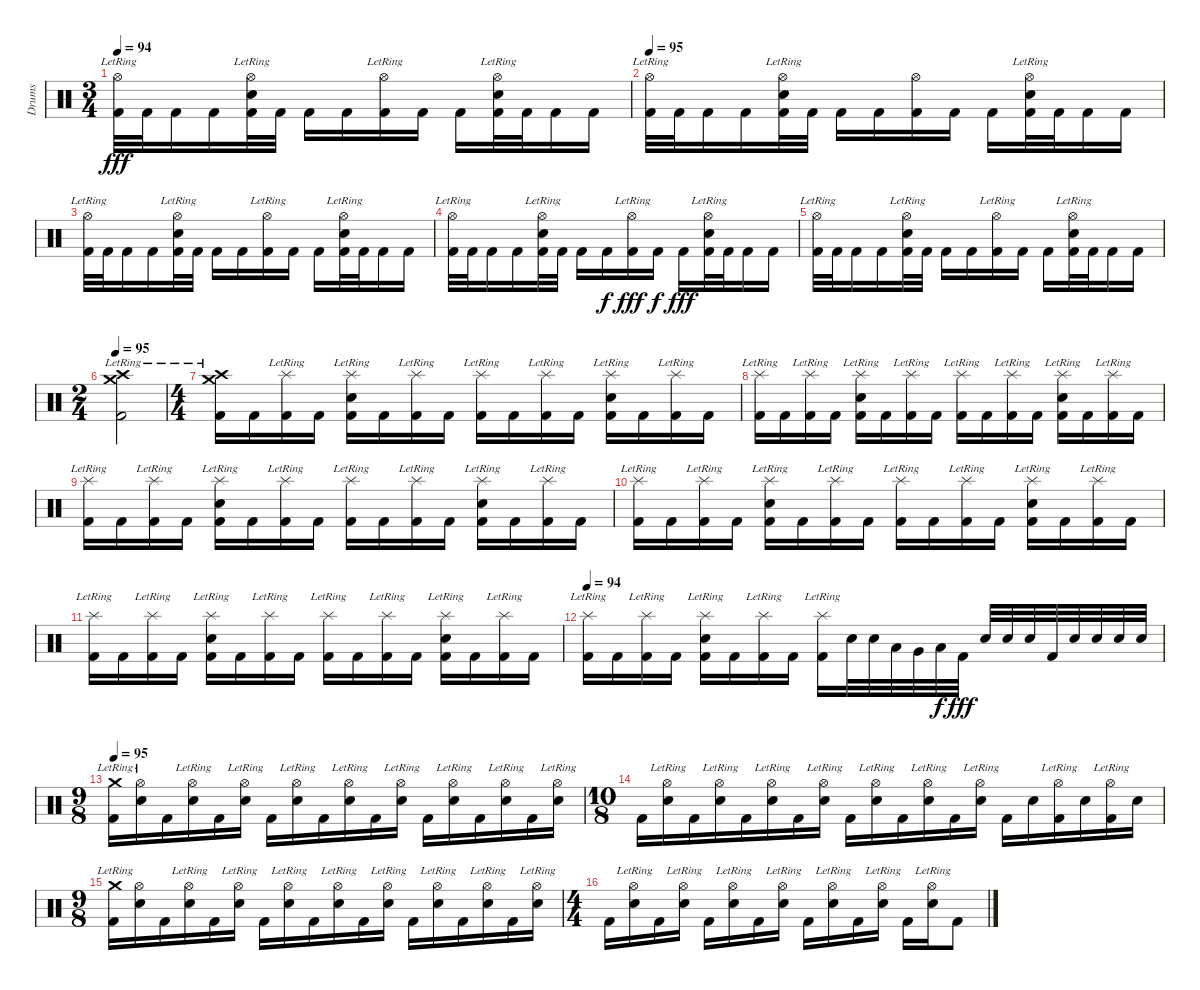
\track ("Drums" "Drums") {instrument percussion}
\staff {score}
\articulation defaults
\ts (3 4)
\tempo 94
\clef neutral
\ks c
("Hi-Hat (open)"{lr} "Kick (hit) 2").32{dy fff} "Kick (hit) 2".32 "Kick (hit) 2".16 "Kick (hit) 2".16 ("Hi-Hat (open)"{lr} "Electric Snare (hit)" "Kick (hit) 2").32 "Kick (hit) 2".32 "Kick (hit) 2".16 "Kick (hit) 2".16 ("Hi-Hat (open)"{lr} "Kick (hit) 2").16 "Kick (hit) 2".16 "Kick (hit) 2".16 ("Hi-Hat (open)"{lr} "Electric Snare (hit)" "Kick (hit) 2").32 "Kick (hit) 2".32 "Kick (hit) 2".16 "Kick (hit) 2".16 |
\tempo 95
("Hi-Hat (open)"{lr} "Kick (hit) 2").32 "Kick (hit) 2".32 "Kick (hit) 2".16 "Kick (hit) 2".16 ("Hi-Hat (open)"{lr} "Electric Snare (hit)" "Kick (hit) 2").32 "Kick (hit) 2".32 "Kick (hit) 2".16 "Kick (hit) 2".16 ("Hi-Hat (open)" "Kick (hit) 2").16 "Kick (hit) 2".16 "Kick (hit) 2".16 ("Hi-Hat (open)"{lr} "Electric Snare (hit)" "Kick (hit) 2").32 "Kick (hit) 2".32 "Kick (hit) 2".16 "Kick (hit) 2".16 |
("Hi-Hat (open)"{lr} "Kick (hit) 2").32 "Kick (hit) 2".32 "Kick (hit) 2".16 "Kick (hit) 2".16 ("Hi-Hat (open)"{lr} "Electric Snare (hit)" "Kick (hit) 2").32 "Kick (hit) 2".32 "Kick (hit) 2".16 "Kick (hit) 2".16 ("Hi-Hat (open)"{lr} "Kick (hit) 2").16 "Kick (hit) 2".16 "Kick (hit) 2".16 ("Hi-Hat (open)"{lr} "Electric Snare (hit)" "Kick (hit) 2").32 "Kick (hit) 2".32 "Kick (hit) 2".16 "Kick (hit) 2".16 |
("Hi-Hat (open)"{lr} "Kick (hit) 2").32 "Kick (hit) 2".32 "Kick (hit) 2".16 "Kick (hit) 2".16 ("Hi-Hat (open)"{lr} "Electric Snare (hit)" "Kick (hit) 2").32 "Kick (hit) 2".32 "Kick (hit) 2".16 "Kick (hit) 2".16{dy f} ("Hi-Hat (open)"{lr} "Kick (hit) 2").16{dy fff} "Kick (hit) 2".16{dy f} "Kick (hit) 2".16{dy fff} ("Hi-Hat (open)"{lr} "Electric Snare (hit)" "Kick (hit) 2").32 "Kick (hit) 2".32 "Kick (hit) 2".16 "Kick (hit) 2".16 |
("Hi-Hat (open)"{lr} "Kick (hit) 2").32 "Kick (hit) 2".32 "Kick (hit) 2".16 "Kick (hit) 2".16 ("Hi-Hat (open)"{lr} "Electric Snare (hit)" "Kick (hit) 2").32 "Kick (hit) 2".32 "Kick (hit) 2".16 "Kick (hit) 2".16 ("Hi-Hat (open)"{lr} "Kick (hit) 2").16 "Kick (hit) 2".16 "Kick (hit) 2".16 ("Hi-Hat (open)"{lr} "Electric Snare (hit)" "Kick (hit) 2").32 "Kick (hit) 2".32 "Kick (hit) 2".16 "Kick (hit) 2".16 |
\ts (2 4)
\tempo 95
("Crash high (hit)"{lr} "Crash medium (hit)"{lr} "Kick (hit) 2").2 |
\ts (4 4)
("Crash high (hit)"{lr} "Crash medium (hit)"{lr} "Kick (hit) 2").16 "Kick (hit) 2".16 ("Splash (hit)"{lr} "Kick (hit) 2").16 "Kick (hit) 2".16 ("Splash (hit)"{lr} "Electric Snare (hit)" "Kick (hit) 2").16 "Kick (hit) 2".16 ("Splash (hit)"{lr} "Kick (hit) 2").16 "Kick (hit) 2".16 ("Splash (hit)"{lr} "Kick (hit) 2").16 "Kick (hit) 2".16 ("Splash (hit)"{lr} "Kick (hit) 2").16 "Kick (hit) 2".16 ("Splash (hit)"{lr} "Electric Snare (hit)" "Kick (hit) 2").16 "Kick (hit) 2".16 ("Splash (hit)"{lr} "Kick (hit) 2").16 "Kick (hit) 2".16 |
("Splash (hit)"{lr} "Kick (hit) 2").16 "Kick (hit) 2".16 ("Splash (hit)"{lr} "Kick (hit) 2").16 "Kick (hit) 2".16 ("Splash (hit)"{lr} "Electric Snare (hit)" "Kick (hit) 2").16 "Kick (hit) 2".16 ("Splash (hit)"{lr} "Kick (hit) 2").16 "Kick (hit) 2".16 ("Splash (hit)"{lr} "Kick (hit) 2").16 "Kick (hit) 2".16 ("Splash (hit)"{lr} "Kick (hit) 2").16 "Kick (hit) 2".16 ("Splash (hit)"{lr} "Electric Snare (hit)" "Kick (hit) 2").16 "Kick (hit) 2".16 ("Splash (hit)"{lr} "Kick (hit) 2").16 "Kick (hit) 2".16 |
("Splash (hit)"{lr} "Kick (hit) 2").16 "Kick (hit) 2".16 ("Splash (hit)"{lr} "Kick (hit) 2").16 "Kick (hit) 2".16 ("Splash (hit)"{lr} "Electric Snare (hit)" "Kick (hit) 2").16 "Kick (hit) 2".16 ("Splash (hit)"{lr} "Kick (hit) 2").16 "Kick (hit) 2".16 ("Splash (hit)"{lr} "Kick (hit) 2").16 "Kick (hit) 2".16 ("Splash (hit)"{lr} "Kick (hit) 2").16 "Kick (hit) 2".16 ("Splash (hit)"{lr} "Electric Snare (hit)" "Kick (hit) 2").16 "Kick (hit) 2".16 ("Splash (hit)"{lr} "Kick (hit) 2").16 "Kick (hit) 2".16 |
("Splash (hit)"{lr} "Kick (hit) 2").16 "Kick (hit) 2".16 ("Splash (hit)"{lr} "Kick (hit) 2").16 "Kick (hit) 2".16 ("Splash (hit)"{lr} "Electric Snare (hit)" "Kick (hit) 2").16 "Kick (hit) 2".16 ("Splash (hit)"{lr} "Kick (hit) 2").16 "Kick (hit) 2".16 ("Splash (hit)"{lr} "Kick (hit) 2").16 "Kick (hit) 2".16 ("Splash (hit)"{lr} "Kick (hit) 2").16 "Kick (hit) 2".16 ("Splash (hit)"{lr} "Electric Snare (hit)" "Kick (hit) 2").16 "Kick (hit) 2".16 ("Splash (hit)"{lr} "Kick (hit) 2").16 "Kick (hit) 2".16 |
("Splash (hit)"{lr} "Kick (hit) 2").16 "Kick (hit) 2".16 ("Splash (hit)"{lr} "Kick (hit) 2").16 "Kick (hit) 2".16 ("Splash (hit)"{lr} "Electric Snare (hit)" "Kick (hit) 2").16 "Kick (hit) 2".16 ("Splash (hit)"{lr} "Kick (hit) 2").16 "Kick (hit) 2".16 ("Splash (hit)"{lr} "Kick (hit) 2").16 "Kick (hit) 2".16 ("Splash (hit)"{lr} "Kick (hit) 2").16 "Kick (hit) 2".16 ("Splash (hit)"{lr} "Electric Snare (hit)" "Kick (hit) 2").16 "Kick (hit) 2".16 ("Splash (hit)"{lr} "Kick (hit) 2").16 "Kick (hit) 2".16 |
\tempo 94
("Splash (hit)"{lr} "Kick (hit) 2").16 "Kick (hit) 2".16 ("Splash (hit)"{lr} "Kick (hit) 2").16 "Kick (hit) 2".16 ("Splash (hit)"{lr} "Electric Snare (hit)" "Kick (hit) 2").16 "Kick (hit) 2".16 ("Splash (hit)"{lr} "Kick (hit) 2").16 "Kick (hit) 2".16 ("Splash (hit)"{lr} "Kick (hit) 2").16 "Electric Snare (hit)".32 "Electric Snare (hit)".32 "Low Tom (hit)".32 "Very Low Tom (hit)".32 "Low Floor Tom (hit)".32{dy f} "Kick (hit) 2".32{dy fff} "Electric Snare (hit)".32 "Electric Snare (hit)".32 "Electric Snare (hit)".32 "Kick (hit) 2".32 "Electric Snare (hit)".32 "Electric Snare (hit)".32 "Electric Snare (hit)".32 "Electric Snare (hit)".32 |
\ts (9 8)
\tempo 95
("Crash medium (hit)"{lr} "Kick (hit) 2").16 ("Hi-Hat (open)"{lr} "Electric Snare (hit)").16 "Kick (hit) 2".16 ("Hi-Hat (open)"{lr} "Electric Snare (hit)").16 "Kick (hit) 2".16 ("Hi-Hat (open)"{lr} "Electric Snare (hit)").16 "Kick (hit) 2".16 ("Hi-Hat (open)"{lr} "Electric Snare (hit)").16 "Kick (hit) 2".16 ("Hi-Hat (open)"{lr} "Electric Snare (hit)").16 "Kick (hit) 2".16 ("Hi-Hat (open)"{lr} "Electric Snare (hit)").16 "Kick (hit) 2".16 ("Hi-Hat (open)"{lr} "Electric Snare (hit)").16 "Kick (hit) 2".16 ("Hi-Hat (open)"{lr} "Electric Snare (hit)").16 "Kick (hit) 2".16 ("Hi-Hat (open)"{lr} "Electric Snare (hit)").16 |
\ts (10 8)
"Kick (hit) 2".16 ("Hi-Hat (open)"{lr} "Electric Snare (hit)").16 "Kick (hit) 2".16 ("Hi-Hat (open)"{lr} "Electric Snare (hit)").16 "Kick (hit) 2".16 ("Hi-Hat (open)"{lr} "Electric Snare (hit)").16 "Kick (hit) 2".16 ("Hi-Hat (open)"{lr} "Electric Snare (hit)").16 "Kick (hit) 2".16 ("Hi-Hat (open)"{lr} "Electric Snare (hit)").16 "Kick (hit) 2".16 ("Hi-Hat (open)"{lr} "Electric Snare (hit)").16 "Kick (hit) 2".16 ("Hi-Hat (open)"{lr} "Electric Snare (hit)").16 "Kick (hit) 2".16 "Electric Snare (hit)".16 ("Hi-Hat (open)"{lr} "Kick (hit) 2").16 "Electric Snare (hit)".16 ("Hi-Hat (open)"{lr} "Kick (hit) 2").16 "Electric Snare (hit)".16 |
\ts (9 8)
("Crash medium (hit)"{lr} "Kick (hit) 2").16 ("Hi-Hat (open)"{lr} "Electric Snare (hit)").16 "Kick (hit) 2".16 ("Hi-Hat (open)"{lr} "Electric Snare (hit)").16 "Kick (hit) 2".16 ("Hi-Hat (open)"{lr} "Electric Snare (hit)").16 "Kick (hit) 2".16 ("Hi-Hat (open)"{lr} "Electric Snare (hit)").16 "Kick (hit) 2".16 ("Hi-Hat (open)"{lr} "Electric Snare (hit)").16 "Kick (hit) 2".16 ("Hi-Hat (open)"{lr} "Electric Snare (hit)").16 "Kick (hit) 2".16 ("Hi-Hat (open)"{lr} "Electric Snare (hit)").16 "Kick (hit) 2".16 ("Hi-Hat (open)"{lr} "Electric Snare (hit)").16 "Kick (hit) 2".16 ("Hi-Hat (open)"{lr} "Electric Snare (hit)").16 |
\ts (4 4)
"Kick (hit) 2".16 ("Hi-Hat (open)"{lr} "Electric Snare (hit)").16 "Kick (hit) 2".16 ("Hi-Hat (open)"{lr} "Electric Snare (hit)").16 "Kick (hit) 2".16 ("Hi-Hat (open)"{lr} "Electric Snare (hit)").16 "Kick (hit) 2".16 ("Hi-Hat (open)"{lr} "Electric Snare (hit)").16 "Kick (hit) 2".16 ("Hi-Hat (open)"{lr} "Electric Snare (hit)").16 "Kick (hit) 2".16 ("Hi-Hat (open)"{lr} "Electric Snare (hit)").16 "Kick (hit) 2".16 ("Hi-Hat (open)"{lr} "Electric Snare (hit)").16 "Kick (hit) 2".8
